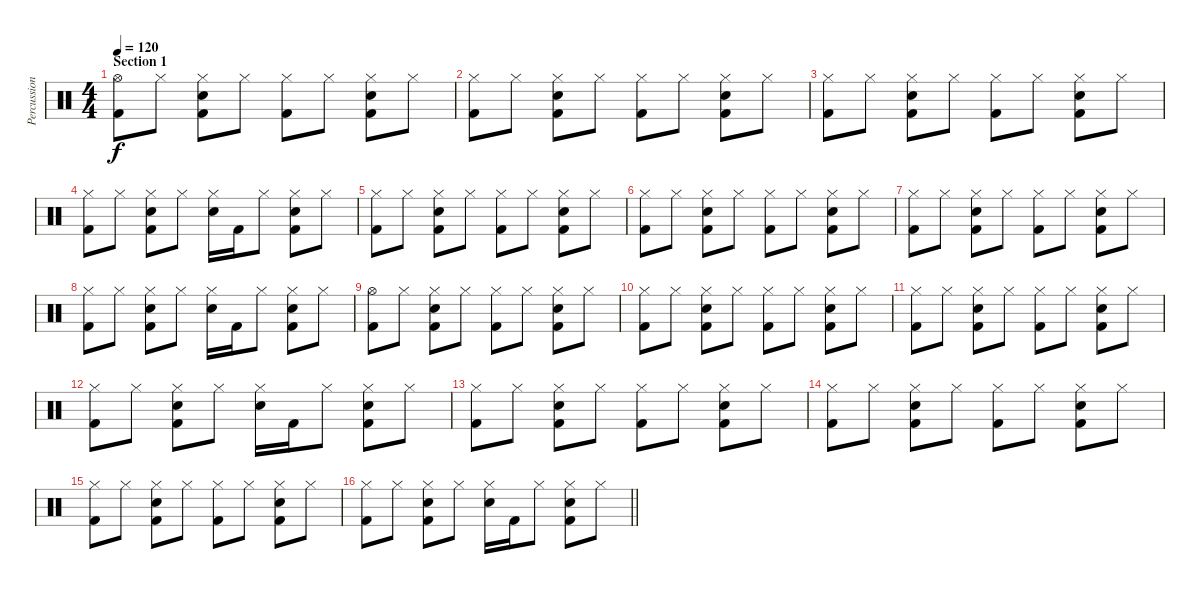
\track ("Percussion" "Percussion") {instrument percussion}
\staff {score}
\articulation defaults
\ts (4 4)
\section ("" "Section 1")
\tempo 120
\clef neutral
\ks c
("Kick (hit) 2" "Hi-Hat (open)").8{dy f} "Hi-Hat (closed)".8 ("Kick (hit) 2" "Electric Snare (hit)" "Hi-Hat (closed)").8 "Hi-Hat (closed)".8 ("Kick (hit) 2" "Hi-Hat (closed)").8 "Hi-Hat (closed)".8 ("Kick (hit) 2" "Electric Snare (hit)" "Hi-Hat (closed)").8 "Hi-Hat (closed)".8 |
("Kick (hit) 2" "Hi-Hat (closed)").8 "Hi-Hat (closed)".8 ("Kick (hit) 2" "Electric Snare (hit)" "Hi-Hat (closed)").8 "Hi-Hat (closed)".8 ("Kick (hit) 2" "Hi-Hat (closed)").8 "Hi-Hat (closed)".8 ("Kick (hit) 2" "Electric Snare (hit)" "Hi-Hat (closed)").8 "Hi-Hat (closed)".8 |
("Kick (hit) 2" "Hi-Hat (closed)").8 "Hi-Hat (closed)".8 ("Kick (hit) 2" "Electric Snare (hit)" "Hi-Hat (closed)").8 "Hi-Hat (closed)".8 ("Kick (hit) 2" "Hi-Hat (closed)").8 "Hi-Hat (closed)".8 ("Kick (hit) 2" "Electric Snare (hit)" "Hi-Hat (closed)").8 "Hi-Hat (closed)".8 |
("Kick (hit) 2" "Hi-Hat (closed)").8 "Hi-Hat (closed)".8 ("Kick (hit) 2" "Electric Snare (hit)" "Hi-Hat (closed)").8 "Hi-Hat (closed)".8 ("Electric Snare (hit)" "Hi-Hat (closed)").16 "Kick (hit) 2".16 "Hi-Hat (closed)".8 ("Kick (hit) 2" "Electric Snare (hit)" "Hi-Hat (closed)").8 "Hi-Hat (closed)".8 |
("Kick (hit) 2" "Hi-Hat (closed)").8 "Hi-Hat (closed)".8 ("Kick (hit) 2" "Electric Snare (hit)" "Hi-Hat (closed)").8 "Hi-Hat (closed)".8 ("Kick (hit) 2" "Hi-Hat (closed)").8 "Hi-Hat (closed)".8 ("Kick (hit) 2" "Electric Snare (hit)" "Hi-Hat (closed)").8 "Hi-Hat (closed)".8 |
("Kick (hit) 2" "Hi-Hat (closed)").8 "Hi-Hat (closed)".8 ("Kick (hit) 2" "Electric Snare (hit)" "Hi-Hat (closed)").8 "Hi-Hat (closed)".8 ("Kick (hit) 2" "Hi-Hat (closed)").8 "Hi-Hat (closed)".8 ("Kick (hit) 2" "Electric Snare (hit)" "Hi-Hat (closed)").8 "Hi-Hat (closed)".8 |
("Kick (hit) 2" "Hi-Hat (closed)").8 "Hi-Hat (closed)".8 ("Kick (hit) 2" "Electric Snare (hit)" "Hi-Hat (closed)").8 "Hi-Hat (closed)".8 ("Kick (hit) 2" "Hi-Hat (closed)").8 "Hi-Hat (closed)".8 ("Kick (hit) 2" "Electric Snare (hit)" "Hi-Hat (closed)").8 "Hi-Hat (closed)".8 |
("Kick (hit) 2" "Hi-Hat (closed)").8 "Hi-Hat (closed)".8 ("Kick (hit) 2" "Electric Snare (hit)" "Hi-Hat (closed)").8 "Hi-Hat (closed)".8 ("Electric Snare (hit)" "Hi-Hat (closed)").16 "Kick (hit) 2".16 "Hi-Hat (closed)".8 ("Kick (hit) 2" "Electric Snare (hit)" "Hi-Hat (closed)").8 "Hi-Hat (closed)".8 |
("Kick (hit) 2" "Hi-Hat (open)").8 "Hi-Hat (closed)".8 ("Kick (hit) 2" "Electric Snare (hit)" "Hi-Hat (closed)").8 "Hi-Hat (closed)".8 ("Kick (hit) 2" "Hi-Hat (closed)").8 "Hi-Hat (closed)".8 ("Kick (hit) 2" "Electric Snare (hit)" "Hi-Hat (closed)").8 "Hi-Hat (closed)".8 |
("Kick (hit) 2" "Hi-Hat (closed)").8 "Hi-Hat (closed)".8 ("Kick (hit) 2" "Electric Snare (hit)" "Hi-Hat (closed)").8 "Hi-Hat (closed)".8 ("Kick (hit) 2" "Hi-Hat (closed)").8 "Hi-Hat (closed)".8 ("Kick (hit) 2" "Electric Snare (hit)" "Hi-Hat (closed)").8 "Hi-Hat (closed)".8 |
("Kick (hit) 2" "Hi-Hat (closed)").8 "Hi-Hat (closed)".8 ("Kick (hit) 2" "Electric Snare (hit)" "Hi-Hat (closed)").8 "Hi-Hat (closed)".8 ("Kick (hit) 2" "Hi-Hat (closed)").8 "Hi-Hat (closed)".8 ("Kick (hit) 2" "Electric Snare (hit)" "Hi-Hat (closed)").8 "Hi-Hat (closed)".8 |
("Kick (hit) 2" "Hi-Hat (closed)").8 "Hi-Hat (closed)".8 ("Kick (hit) 2" "Electric Snare (hit)" "Hi-Hat (closed)").8 "Hi-Hat (closed)".8 ("Electric Snare (hit)" "Hi-Hat (closed)").16 "Kick (hit) 2".16 "Hi-Hat (closed)".8 ("Kick (hit) 2" "Electric Snare (hit)" "Hi-Hat (closed)").8 "Hi-Hat (closed)".8 |
("Kick (hit) 2" "Hi-Hat (closed)").8 "Hi-Hat (closed)".8 ("Kick (hit) 2" "Electric Snare (hit)" "Hi-Hat (closed)").8 "Hi-Hat (closed)".8 ("Kick (hit) 2" "Hi-Hat (closed)").8 "Hi-Hat (closed)".8 ("Kick (hit) 2" "Electric Snare (hit)" "Hi-Hat (closed)").8 "Hi-Hat (closed)".8 |
("Kick (hit) 2" "Hi-Hat (closed)").8 "Hi-Hat (closed)".8 ("Kick (hit) 2" "Electric Snare (hit)" "Hi-Hat (closed)").8 "Hi-Hat (closed)".8 ("Kick (hit) 2" "Hi-Hat (closed)").8 "Hi-Hat (closed)".8 ("Kick (hit) 2" "Electric Snare (hit)" "Hi-Hat (closed)").8 "Hi-Hat (closed)".8 |
("Kick (hit) 2" "Hi-Hat (closed)").8 "Hi-Hat (closed)".8 ("Kick (hit) 2" "Electric Snare (hit)" "Hi-Hat (closed)").8 "Hi-Hat (closed)".8 ("Kick (hit) 2" "Hi-Hat (closed)").8 "Hi-Hat (closed)".8 ("Kick (hit) 2" "Electric Snare (hit)" "Hi-Hat (closed)").8 "Hi-Hat (closed)".8 |
\barLineRight lightlight
("Kick (hit) 2" "Hi-Hat (closed)").8 "Hi-Hat (closed)".8 ("Kick (hit) 2" "Electric Snare (hit)" "Hi-Hat (closed)").8 "Hi-Hat (closed)".8 ("Electric Snare (hit)" "Hi-Hat (closed)").16 "Kick (hit) 2".16 "Hi-Hat (closed)".8 ("Kick (hit) 2" "Electric Snare (hit)" "Hi-Hat (closed)").8 "Hi-Hat (closed)".8
